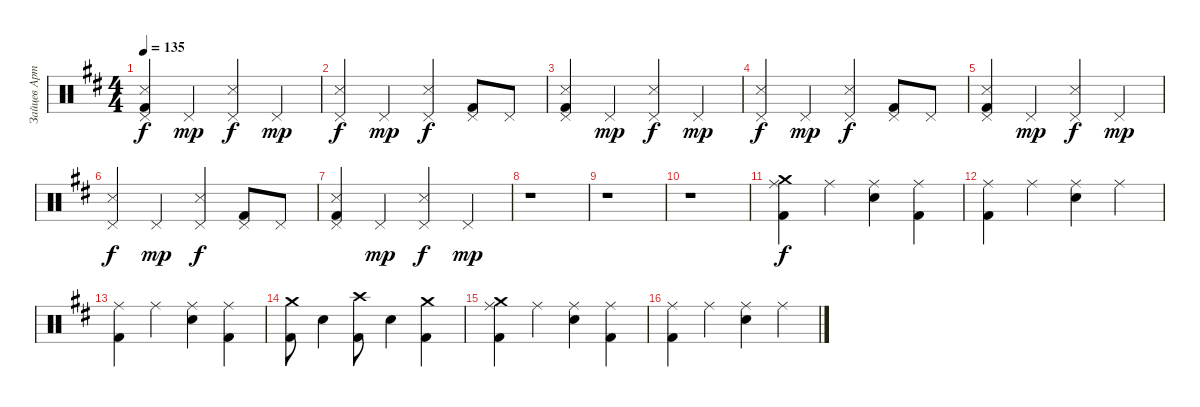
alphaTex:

\track ("Зайцев Артём" "Зайцев Арт") {instrument percussion}
\staff {score}
\articulation defaults
\ts (4 4)
\tempo 135
\clef neutral
\ks d
("Kick (hit) 2" "Snare (side stick) 3" "Pedal Hi-Hat (hit)").4{dy f} "Pedal Hi-Hat (hit)".4{dy mp} ("Pedal Hi-Hat (hit)" "Snare (side stick) 3").4{dy f} "Pedal Hi-Hat (hit)".4{dy mp} |
("Pedal Hi-Hat (hit)" "Snare (side stick) 3").4{dy f} "Pedal Hi-Hat (hit)".4{dy mp} ("Pedal Hi-Hat (hit)" "Snare (side stick) 3").4{dy f} ("Pedal Hi-Hat (hit)" "Kick (hit) 2").8 "Pedal Hi-Hat (hit)".8 |
("Kick (hit) 2" "Snare (side stick) 3" "Pedal Hi-Hat (hit)").4 "Pedal Hi-Hat (hit)".4{dy mp} ("Pedal Hi-Hat (hit)" "Snare (side stick) 3").4{dy f} "Pedal Hi-Hat (hit)".4{dy mp} |
("Pedal Hi-Hat (hit)" "Snare (side stick) 3").4{dy f} "Pedal Hi-Hat (hit)".4{dy mp} ("Pedal Hi-Hat (hit)" "Snare (side stick) 3").4{dy f} ("Pedal Hi-Hat (hit)" "Kick (hit) 2").8 "Pedal Hi-Hat (hit)".8 |
("Kick (hit) 2" "Snare (side stick) 3" "Pedal Hi-Hat (hit)").4 "Pedal Hi-Hat (hit)".4{dy mp} ("Pedal Hi-Hat (hit)" "Snare (side stick) 3").4{dy f} "Pedal Hi-Hat (hit)".4{dy mp} |
("Pedal Hi-Hat (hit)" "Snare (side stick) 3").4{dy f} "Pedal Hi-Hat (hit)".4{dy mp} ("Pedal Hi-Hat (hit)" "Snare (side stick) 3").4{dy f} ("Pedal Hi-Hat (hit)" "Kick (hit) 2").8 "Pedal Hi-Hat (hit)".8 |
("Kick (hit) 2" "Snare (side stick) 3" "Pedal Hi-Hat (hit)").4 "Pedal Hi-Hat (hit)".4{dy mp} ("Pedal Hi-Hat (hit)" "Snare (side stick) 3").4{dy f} "Pedal Hi-Hat (hit)".4{dy mp} |
r.1 |
r.1 |
r.1 |
("Ride (middle)" "Crash medium (hit)" "Kick (hit) 2").4{dy f} "Ride (middle)".4 ("Ride (middle)" "Snare (hit) 2").4 ("Ride (middle)" "Kick (hit) 2").4 |
("Ride (middle)" "Kick (hit) 2").4 "Ride (middle)".4 ("Ride (middle)" "Snare (hit) 2").4 "Ride (middle)".4 |
("Ride (middle)" "Kick (hit) 2").4 "Ride (middle)".4 ("Ride (middle)" "Snare (hit) 2").4 ("Ride (middle)" "Kick (hit) 2").4 |
("Kick (hit) 2" "Crash medium (hit)").8 "Snare (hit) 2".4 ("Kick (hit) 2" "Crash high (hit)").8 "Snare (hit) 2".4 ("Kick (hit) 2" "Crash medium (hit)").4 |
("Ride (middle)" "Crash medium (hit)" "Kick (hit) 2").4 "Ride (middle)".4 ("Ride (middle)" "Snare (hit) 2").4 ("Ride (middle)" "Kick (hit) 2").4 |
("Ride (middle)" "Kick (hit) 2").4 "Ride (middle)".4 ("Ride (middle)" "Snare (hit) 2").4 "Ride (middle)".4
